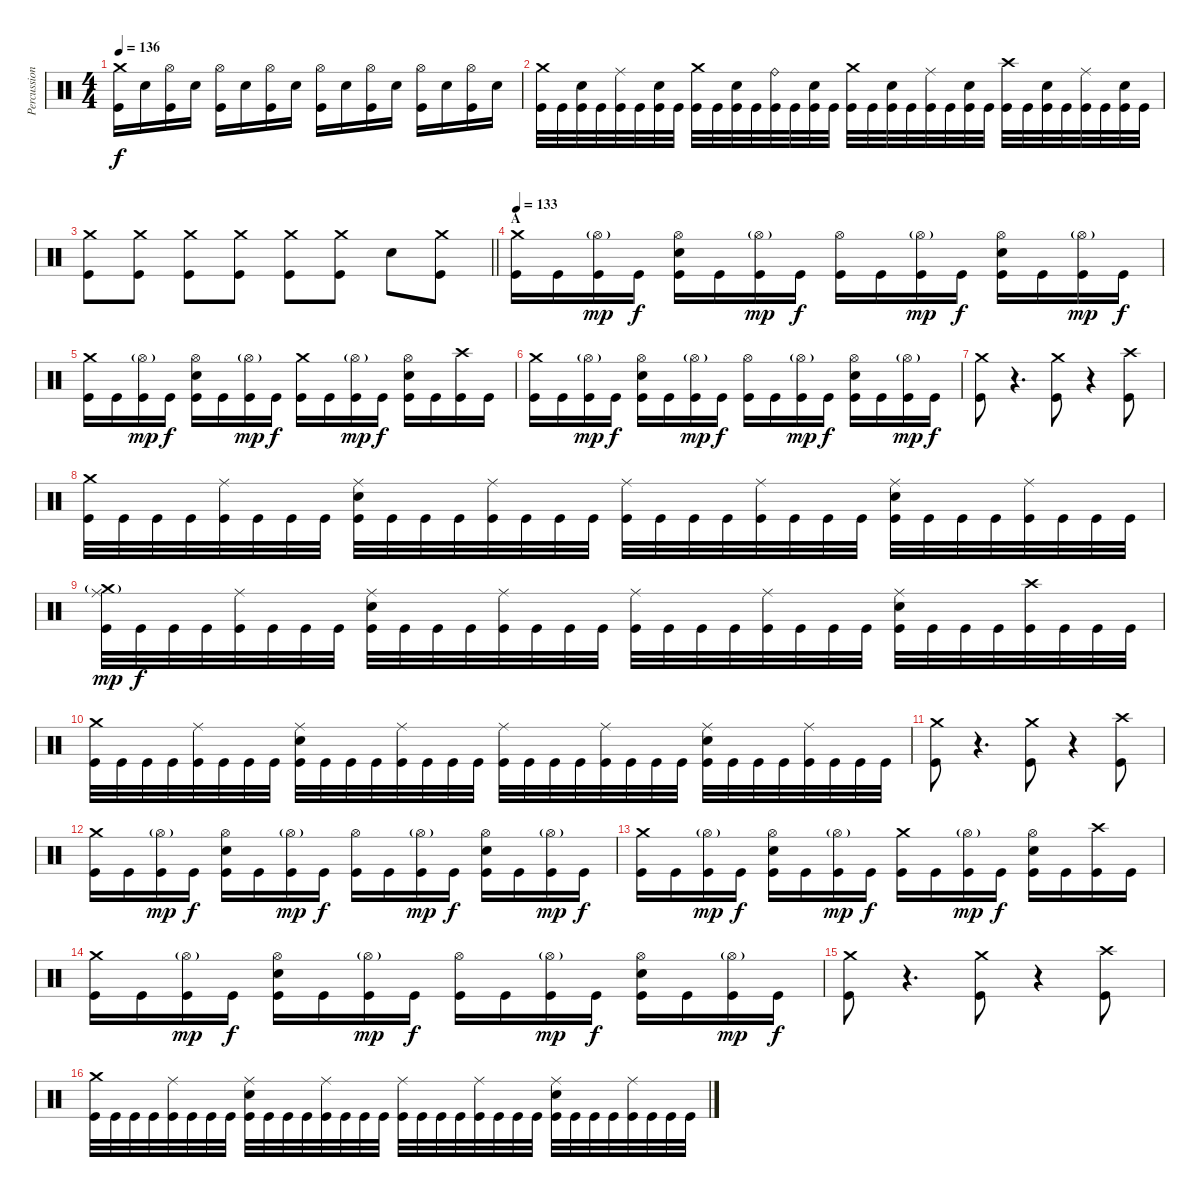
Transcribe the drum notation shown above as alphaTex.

\track ("Percussion" "Percussion") {instrument percussion}
\staff {score}
\articulation defaults
\ts (4 4)
\tempo 136
\clef neutral
\ks c
("Kick (hit)" "Crash medium (hit)").16{dy f} "Snare (hit) 2".16 ("Kick (hit)" "Hi-Hat (open)").16 "Snare (hit) 2".16 ("Kick (hit)" "Hi-Hat (open)").16 "Snare (hit) 2".16 ("Kick (hit)" "Hi-Hat (open)").16 "Snare (hit) 2".16 ("Kick (hit)" "Hi-Hat (open)").16 "Snare (hit) 2".16 ("Kick (hit)" "Hi-Hat (open)").16 "Snare (hit) 2".16 ("Kick (hit)" "Hi-Hat (open)").16 "Snare (hit) 2".16 ("Kick (hit)" "Hi-Hat (open)").16 "Snare (hit) 2".16 |
("Kick (hit)" "Crash medium (hit)").32 "Kick (hit)".32 ("Kick (hit)" "Snare (hit) 2").32 "Kick (hit)".32 ("Kick (hit)" "Ride (middle)").32 "Kick (hit)".32 ("Kick (hit)" "Snare (hit) 2").32 "Kick (hit)".32 ("Kick (hit)" "Crash medium (hit)").32 "Kick (hit)".32 ("Kick (hit)" "Snare (hit) 2").32 "Kick (hit)".32 ("Kick (hit)" "Ride (bell)").32 "Kick (hit)".32 ("Kick (hit)" "Snare (hit) 2").32 "Kick (hit)".32 ("Kick (hit)" "Crash medium (hit)").32 "Kick (hit)".32 ("Kick (hit)" "Snare (hit) 2").32 "Kick (hit)".32 ("Kick (hit)" "Ride (middle)").32 "Kick (hit)".32 ("Kick (hit)" "Snare (hit) 2").32 "Kick (hit)".32 ("Kick (hit)" "Crash high (hit)").32 "Kick (hit)".32 ("Kick (hit)" "Snare (hit) 2").32 "Kick (hit)".32 ("Kick (hit)" "Ride (middle)").32 "Kick (hit)".32 ("Kick (hit)" "Snare (hit) 2").32 "Kick (hit)".32 |
\barLineRight lightlight
("Kick (hit)" "Crash medium (hit)").8 ("Kick (hit)" "Crash medium (hit)").8 ("Kick (hit)" "Crash medium (hit)").8 ("Kick (hit)" "Crash medium (hit)").8 ("Kick (hit)" "Crash medium (hit)").8 ("Kick (hit)" "Crash medium (hit)").8 "Snare (hit) 2".8 ("Kick (hit)" "Crash medium (hit)").8 |
\section ("" "A")
\tempo 133
("Kick (hit)" "Crash medium (hit)").16 "Kick (hit)".16 ("Kick (hit)" "Hi-Hat (open)"{g}).16{dy mp} "Kick (hit)".16{dy f} ("Kick (hit)" "Snare (hit) 2" "Hi-Hat (open)").16 "Kick (hit)".16 ("Kick (hit)" "Hi-Hat (open)"{g}).16{dy mp} "Kick (hit)".16{dy f} ("Kick (hit)" "Hi-Hat (open)").16 "Kick (hit)".16 ("Kick (hit)" "Hi-Hat (open)"{g}).16{dy mp} "Kick (hit)".16{dy f} ("Kick (hit)" "Snare (hit) 2" "Hi-Hat (open)").16 "Kick (hit)".16 ("Kick (hit)" "Hi-Hat (open)"{g}).16{dy mp} "Kick (hit)".16{dy f} |
("Kick (hit)" "Crash medium (hit)").16 "Kick (hit)".16 ("Kick (hit)" "Hi-Hat (open)"{g}).16{dy mp} "Kick (hit)".16{dy f} ("Kick (hit)" "Snare (hit) 2" "Hi-Hat (open)").16 "Kick (hit)".16 ("Kick (hit)" "Hi-Hat (open)"{g}).16{dy mp} "Kick (hit)".16{dy f} ("Kick (hit)" "Crash medium (hit)").16 "Kick (hit)".16 ("Kick (hit)" "Hi-Hat (open)"{g}).16{dy mp} "Kick (hit)".16{dy f} ("Kick (hit)" "Snare (hit) 2" "Hi-Hat (open)").16 "Kick (hit)".16 ("Kick (hit)" "Crash high (hit)").16 "Kick (hit)".16 |
("Kick (hit)" "Crash medium (hit)").16 "Kick (hit)".16 ("Kick (hit)" "Hi-Hat (open)"{g}).16{dy mp} "Kick (hit)".16{dy f} ("Kick (hit)" "Snare (hit) 2" "Hi-Hat (open)").16 "Kick (hit)".16 ("Kick (hit)" "Hi-Hat (open)"{g}).16{dy mp} "Kick (hit)".16{dy f} ("Kick (hit)" "Hi-Hat (open)").16 "Kick (hit)".16 ("Kick (hit)" "Hi-Hat (open)"{g}).16{dy mp} "Kick (hit)".16{dy f} ("Kick (hit)" "Snare (hit) 2" "Hi-Hat (open)").16 "Kick (hit)".16 ("Kick (hit)" "Hi-Hat (open)"{g}).16{dy mp} "Kick (hit)".16{dy f} |
("Kick (hit)" "Crash medium (hit)").8 r.4{d volume 0} ("Kick (hit)" "Crash medium (hit)").8{volume 13} r.4{volume 0} ("Kick (hit)" "Crash high (hit)").8{volume 13} |
("Kick (hit)" "Crash medium (hit)").32 "Kick (hit)".32 "Kick (hit)".32 "Kick (hit)".32 ("Kick (hit)" "Ride (middle)").32 "Kick (hit)".32 "Kick (hit)".32 "Kick (hit)".32 ("Kick (hit)" "Snare (hit) 2" "Ride (middle)").32 "Kick (hit)".32 "Kick (hit)".32 "Kick (hit)".32 ("Kick (hit)" "Ride (middle)").32 "Kick (hit)".32 "Kick (hit)".32 "Kick (hit)".32 ("Kick (hit)" "Ride (middle)").32 "Kick (hit)".32 "Kick (hit)".32 "Kick (hit)".32 ("Kick (hit)" "Ride (middle)").32 "Kick (hit)".32 "Kick (hit)".32 "Kick (hit)".32 ("Kick (hit)" "Snare (hit) 2" "Ride (middle)").32 "Kick (hit)".32 "Kick (hit)".32 "Kick (hit)".32 ("Kick (hit)" "Ride (middle)").32 "Kick (hit)".32 "Kick (hit)".32 "Kick (hit)".32 |
("Kick (hit)" "Ride (middle)" "Crash medium (hit)"{g}).32{dy mp} "Kick (hit)".32{dy f} "Kick (hit)".32 "Kick (hit)".32 ("Kick (hit)" "Ride (middle)").32 "Kick (hit)".32 "Kick (hit)".32 "Kick (hit)".32 ("Kick (hit)" "Snare (hit) 2" "Ride (middle)").32 "Kick (hit)".32 "Kick (hit)".32 "Kick (hit)".32 ("Kick (hit)" "Ride (middle)").32 "Kick (hit)".32 "Kick (hit)".32 "Kick (hit)".32 ("Kick (hit)" "Ride (middle)").32 "Kick (hit)".32 "Kick (hit)".32 "Kick (hit)".32 ("Kick (hit)" "Ride (middle)").32 "Kick (hit)".32 "Kick (hit)".32 "Kick (hit)".32 ("Kick (hit)" "Snare (hit) 2" "Ride (middle)").32 "Kick (hit)".32 "Kick (hit)".32 "Kick (hit)".32 ("Kick (hit)" "Crash high (hit)").32 "Kick (hit)".32 "Kick (hit)".32 "Kick (hit)".32 |
("Kick (hit)" "Crash medium (hit)").32 "Kick (hit)".32 "Kick (hit)".32 "Kick (hit)".32 ("Kick (hit)" "Ride (middle)").32 "Kick (hit)".32 "Kick (hit)".32 "Kick (hit)".32 ("Kick (hit)" "Snare (hit) 2" "Ride (middle)").32 "Kick (hit)".32 "Kick (hit)".32 "Kick (hit)".32 ("Kick (hit)" "Ride (middle)").32 "Kick (hit)".32 "Kick (hit)".32 "Kick (hit)".32 ("Kick (hit)" "Ride (middle)").32 "Kick (hit)".32 "Kick (hit)".32 "Kick (hit)".32 ("Kick (hit)" "Ride (middle)").32 "Kick (hit)".32 "Kick (hit)".32 "Kick (hit)".32 ("Kick (hit)" "Snare (hit) 2" "Ride (middle)").32 "Kick (hit)".32 "Kick (hit)".32 "Kick (hit)".32 ("Kick (hit)" "Ride (middle)").32 "Kick (hit)".32 "Kick (hit)".32 "Kick (hit)".32 |
("Kick (hit)" "Crash medium (hit)").8 r.4{d volume 0} ("Kick (hit)" "Crash medium (hit)").8{volume 13} r.4{volume 0} ("Kick (hit)" "Crash high (hit)").8{volume 13} |
("Kick (hit)" "Crash medium (hit)").16 "Kick (hit)".16 ("Kick (hit)" "Hi-Hat (open)"{g}).16{dy mp} "Kick (hit)".16{dy f} ("Kick (hit)" "Snare (hit) 2" "Hi-Hat (open)").16 "Kick (hit)".16 ("Kick (hit)" "Hi-Hat (open)"{g}).16{dy mp} "Kick (hit)".16{dy f} ("Kick (hit)" "Hi-Hat (open)").16 "Kick (hit)".16 ("Kick (hit)" "Hi-Hat (open)"{g}).16{dy mp} "Kick (hit)".16{dy f} ("Kick (hit)" "Snare (hit) 2" "Hi-Hat (open)").16 "Kick (hit)".16 ("Kick (hit)" "Hi-Hat (open)"{g}).16{dy mp} "Kick (hit)".16{dy f} |
("Kick (hit)" "Crash medium (hit)").16 "Kick (hit)".16 ("Kick (hit)" "Hi-Hat (open)"{g}).16{dy mp} "Kick (hit)".16{dy f} ("Kick (hit)" "Snare (hit) 2" "Hi-Hat (open)").16 "Kick (hit)".16 ("Kick (hit)" "Hi-Hat (open)"{g}).16{dy mp} "Kick (hit)".16{dy f} ("Kick (hit)" "Crash medium (hit)").16 "Kick (hit)".16 ("Kick (hit)" "Hi-Hat (open)"{g}).16{dy mp} "Kick (hit)".16{dy f} ("Kick (hit)" "Snare (hit) 2" "Hi-Hat (open)").16 "Kick (hit)".16 ("Kick (hit)" "Crash high (hit)").16 "Kick (hit)".16 |
("Kick (hit)" "Crash medium (hit)").16 "Kick (hit)".16 ("Kick (hit)" "Hi-Hat (open)"{g}).16{dy mp} "Kick (hit)".16{dy f} ("Kick (hit)" "Snare (hit) 2" "Hi-Hat (open)").16 "Kick (hit)".16 ("Kick (hit)" "Hi-Hat (open)"{g}).16{dy mp} "Kick (hit)".16{dy f} ("Kick (hit)" "Hi-Hat (open)").16 "Kick (hit)".16 ("Kick (hit)" "Hi-Hat (open)"{g}).16{dy mp} "Kick (hit)".16{dy f} ("Kick (hit)" "Snare (hit) 2" "Hi-Hat (open)").16 "Kick (hit)".16 ("Kick (hit)" "Hi-Hat (open)"{g}).16{dy mp} "Kick (hit)".16{dy f} |
("Kick (hit)" "Crash medium (hit)").8 r.4{d volume 0} ("Kick (hit)" "Crash medium (hit)").8{volume 13} r.4{volume 0} ("Kick (hit)" "Crash high (hit)").8{volume 13} |
("Kick (hit)" "Crash medium (hit)").32 "Kick (hit)".32 "Kick (hit)".32 "Kick (hit)".32 ("Kick (hit)" "Ride (middle)").32 "Kick (hit)".32 "Kick (hit)".32 "Kick (hit)".32 ("Kick (hit)" "Snare (hit) 2" "Ride (middle)").32 "Kick (hit)".32 "Kick (hit)".32 "Kick (hit)".32 ("Kick (hit)" "Ride (middle)").32 "Kick (hit)".32 "Kick (hit)".32 "Kick (hit)".32 ("Kick (hit)" "Ride (middle)").32 "Kick (hit)".32 "Kick (hit)".32 "Kick (hit)".32 ("Kick (hit)" "Ride (middle)").32 "Kick (hit)".32 "Kick (hit)".32 "Kick (hit)".32 ("Kick (hit)" "Snare (hit) 2" "Ride (middle)").32 "Kick (hit)".32 "Kick (hit)".32 "Kick (hit)".32 ("Kick (hit)" "Ride (middle)").32 "Kick (hit)".32 "Kick (hit)".32 "Kick (hit)".32
